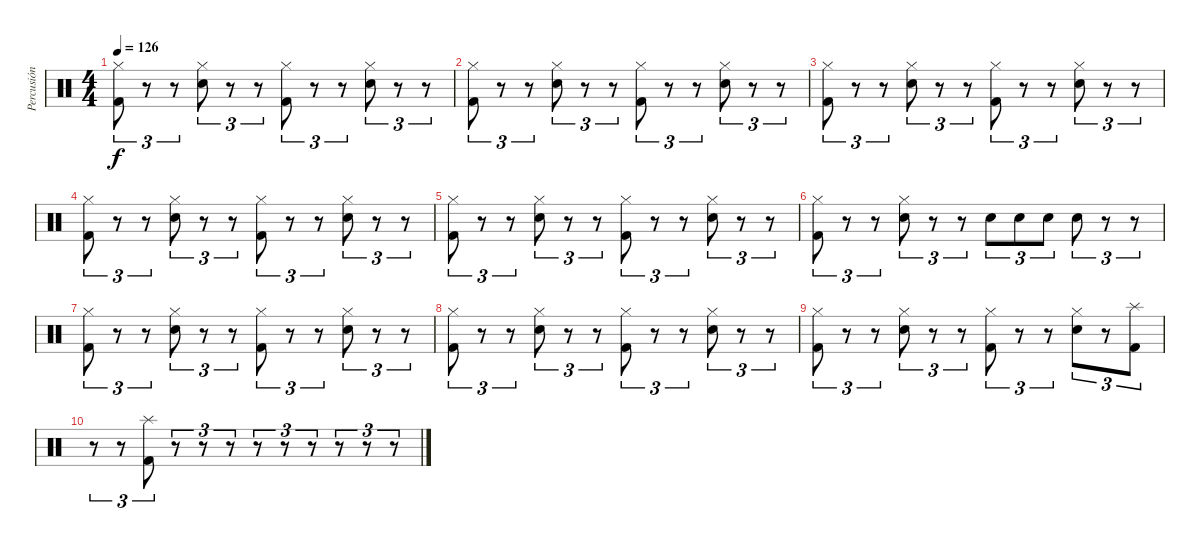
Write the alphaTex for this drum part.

\track ("Percusión" "Percusión") {instrument percussion}
\staff {score}
\articulation defaults
\ts (4 4)
\tempo 126
\clef neutral
\ks c
("Hi-Hat (closed)" "Kick (hit) 2").8{tu (3 2) dy f} r.8{tu (3 2)} r.8{tu (3 2)} ("Hi-Hat (closed)" "Electric Snare (hit)").8{tu (3 2)} r.8{tu (3 2)} r.8{tu (3 2)} ("Hi-Hat (closed)" "Kick (hit) 2").8{tu (3 2)} r.8{tu (3 2)} r.8{tu (3 2)} ("Hi-Hat (closed)" "Electric Snare (hit)").8{tu (3 2)} r.8{tu (3 2)} r.8{tu (3 2)} |
("Hi-Hat (closed)" "Kick (hit) 2").8{tu (3 2)} r.8{tu (3 2)} r.8{tu (3 2)} ("Hi-Hat (closed)" "Electric Snare (hit)").8{tu (3 2)} r.8{tu (3 2)} r.8{tu (3 2)} ("Hi-Hat (closed)" "Kick (hit) 2").8{tu (3 2)} r.8{tu (3 2)} r.8{tu (3 2)} ("Hi-Hat (closed)" "Electric Snare (hit)").8{tu (3 2)} r.8{tu (3 2)} r.8{tu (3 2)} |
("Hi-Hat (closed)" "Kick (hit) 2").8{tu (3 2)} r.8{tu (3 2)} r.8{tu (3 2)} ("Hi-Hat (closed)" "Electric Snare (hit)").8{tu (3 2)} r.8{tu (3 2)} r.8{tu (3 2)} ("Hi-Hat (closed)" "Kick (hit) 2").8{tu (3 2)} r.8{tu (3 2)} r.8{tu (3 2)} ("Hi-Hat (closed)" "Electric Snare (hit)").8{tu (3 2)} r.8{tu (3 2)} r.8{tu (3 2)} |
("Hi-Hat (closed)" "Kick (hit) 2").8{tu (3 2)} r.8{tu (3 2)} r.8{tu (3 2)} ("Hi-Hat (closed)" "Electric Snare (hit)").8{tu (3 2)} r.8{tu (3 2)} r.8{tu (3 2)} ("Hi-Hat (closed)" "Kick (hit) 2").8{tu (3 2)} r.8{tu (3 2)} r.8{tu (3 2)} ("Hi-Hat (closed)" "Electric Snare (hit)").8{tu (3 2)} r.8{tu (3 2)} r.8{tu (3 2)} |
("Hi-Hat (closed)" "Kick (hit) 2").8{tu (3 2)} r.8{tu (3 2)} r.8{tu (3 2)} ("Hi-Hat (closed)" "Electric Snare (hit)").8{tu (3 2)} r.8{tu (3 2)} r.8{tu (3 2)} ("Hi-Hat (closed)" "Kick (hit) 2").8{tu (3 2)} r.8{tu (3 2)} r.8{tu (3 2)} ("Hi-Hat (closed)" "Electric Snare (hit)").8{tu (3 2)} r.8{tu (3 2)} r.8{tu (3 2)} |
("Hi-Hat (closed)" "Kick (hit) 2").8{tu (3 2)} r.8{tu (3 2)} r.8{tu (3 2)} ("Hi-Hat (closed)" "Electric Snare (hit)").8{tu (3 2)} r.8{tu (3 2)} r.8{tu (3 2)} "Electric Snare (hit)".8{tu (3 2)} "Electric Snare (hit)".8{tu (3 2)} "Electric Snare (hit)".8{tu (3 2)} "Electric Snare (hit)".8{tu (3 2)} r.8{tu (3 2)} r.8{tu (3 2)} |
("Hi-Hat (closed)" "Kick (hit) 2").8{tu (3 2)} r.8{tu (3 2)} r.8{tu (3 2)} ("Hi-Hat (closed)" "Electric Snare (hit)").8{tu (3 2)} r.8{tu (3 2)} r.8{tu (3 2)} ("Hi-Hat (closed)" "Kick (hit) 2").8{tu (3 2)} r.8{tu (3 2)} r.8{tu (3 2)} ("Hi-Hat (closed)" "Electric Snare (hit)").8{tu (3 2)} r.8{tu (3 2)} r.8{tu (3 2)} |
("Hi-Hat (closed)" "Kick (hit) 2").8{tu (3 2)} r.8{tu (3 2)} r.8{tu (3 2)} ("Hi-Hat (closed)" "Electric Snare (hit)").8{tu (3 2)} r.8{tu (3 2)} r.8{tu (3 2)} ("Hi-Hat (closed)" "Kick (hit) 2").8{tu (3 2)} r.8{tu (3 2)} r.8{tu (3 2)} ("Hi-Hat (closed)" "Electric Snare (hit)").8{tu (3 2)} r.8{tu (3 2)} r.8{tu (3 2)} |
("Hi-Hat (closed)" "Kick (hit) 2").8{tu (3 2)} r.8{tu (3 2)} r.8{tu (3 2)} ("Hi-Hat (closed)" "Electric Snare (hit)").8{tu (3 2)} r.8{tu (3 2)} r.8{tu (3 2)} ("Hi-Hat (closed)" "Kick (hit) 2").8{tu (3 2)} r.8{tu (3 2)} r.8{tu (3 2)} ("Hi-Hat (closed)" "Electric Snare (hit)").8{tu (3 2)} r.8{tu (3 2)} ("Splash (hit)" "Kick (hit) 2").8{tu (3 2)} |
r.8{tu (3 2)} r.8{tu (3 2)} ("Splash (hit)" "Kick (hit) 2").8{tu (3 2)} r.8{tu (3 2)} r.8{tu (3 2)} r.8{tu (3 2)} r.8{tu (3 2)} r.8{tu (3 2)} r.8{tu (3 2)} r.8{tu (3 2)} r.8{tu (3 2)} r.8{tu (3 2)}
